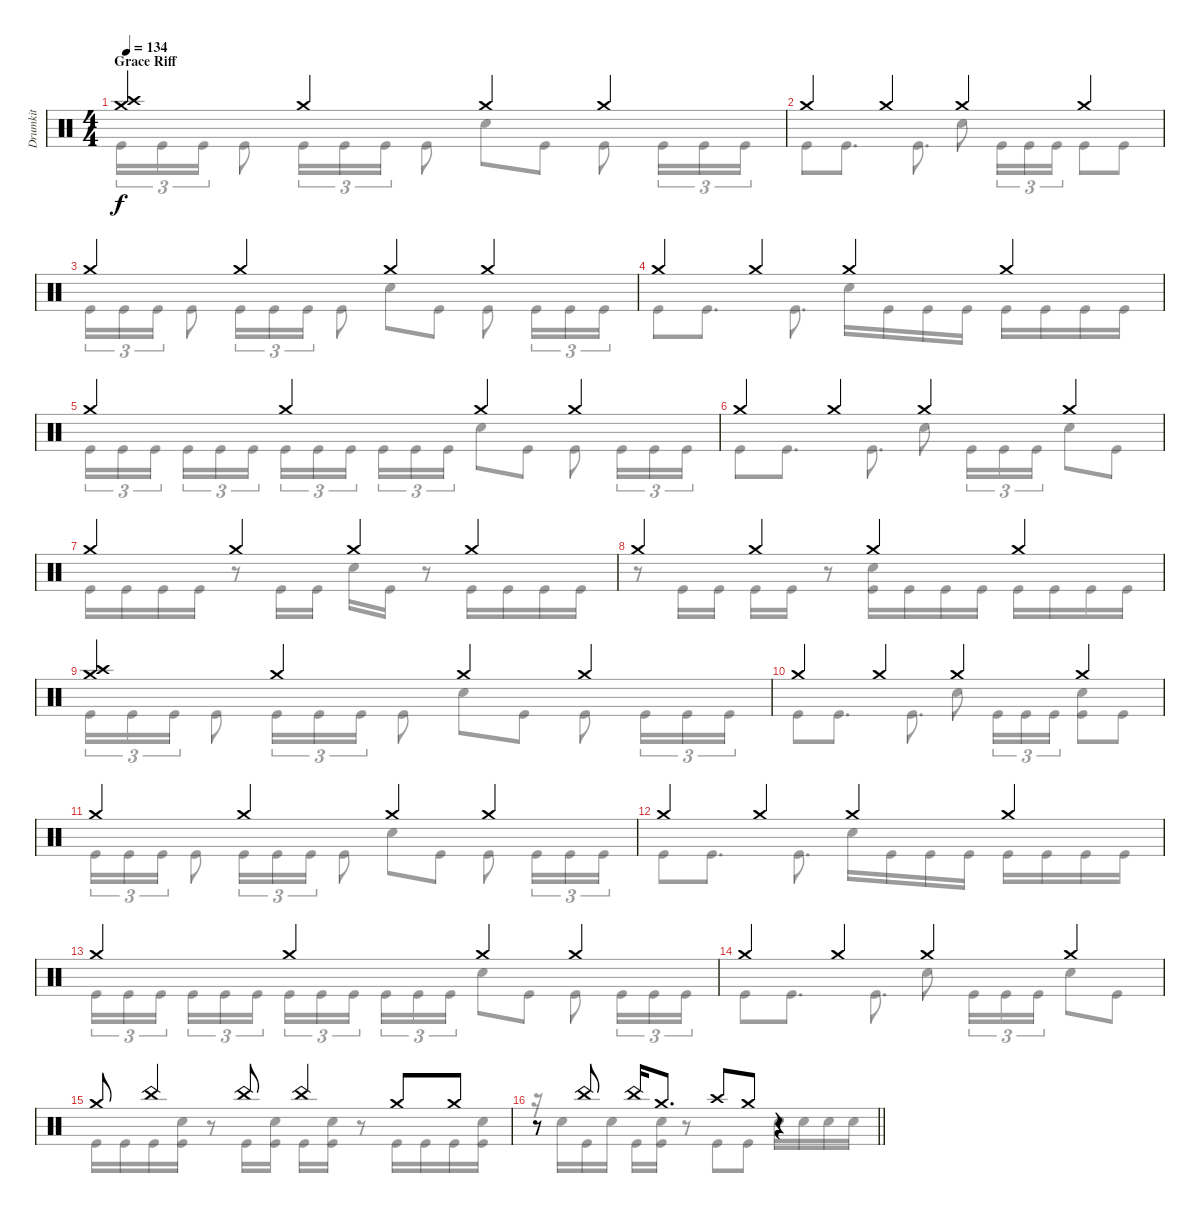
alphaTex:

\track ("Drumkit" "Drumkit") {instrument percussion}
\staff {score}
\articulation defaults
\voice
\ts (4 4)
\section ("" "Grace Riff")
\tempo 134
\clef neutral
\ks c
("Crash high (hit)" "Crash medium (hit)").4{dy f} "Crash medium (hit)".4 "Crash medium (hit)".4 "Crash medium (hit)".4 |
"Crash medium (hit)".4 "Crash medium (hit)".4 "Crash medium (hit)".4 "Crash medium (hit)".4 |
"Crash medium (hit)".4 "Crash medium (hit)".4 "Crash medium (hit)".4 "Crash medium (hit)".4 |
"Crash medium (hit)".4 "Crash medium (hit)".4 "Crash medium (hit)".4 "Crash medium (hit)".4 |
"Crash medium (hit)".4 "Crash medium (hit)".4 "Crash medium (hit)".4 "Crash medium (hit)".4 |
"Crash medium (hit)".4 "Crash medium (hit)".4 "Crash medium (hit)".4 "Crash medium (hit)".4 |
"Crash medium (hit)".4 "Crash medium (hit)".4 "Crash medium (hit)".4 "Crash medium (hit)".4 |
"Crash medium (hit)".4 "Crash medium (hit)".4 "Crash medium (hit)".4 "Crash medium (hit)".4 |
("Crash high (hit)" "Crash medium (hit)").4 "Crash medium (hit)".4 "Crash medium (hit)".4 "Crash medium (hit)".4 |
"Crash medium (hit)".4 "Crash medium (hit)".4 "Crash medium (hit)".4 "Crash medium (hit)".4 |
"Crash medium (hit)".4 "Crash medium (hit)".4 "Crash medium (hit)".4 "Crash medium (hit)".4 |
"Crash medium (hit)".4 "Crash medium (hit)".4 "Crash medium (hit)".4 "Crash medium (hit)".4 |
"Crash medium (hit)".4 "Crash medium (hit)".4 "Crash medium (hit)".4 "Crash medium (hit)".4 |
"Crash medium (hit)".4 "Crash medium (hit)".4 "Crash medium (hit)".4 "Crash medium (hit)".4 |
"Crash medium (hit)".8 "China (hit)".4 "China (hit)".8 "China (hit)".4 "Crash medium (hit)".8 "Crash medium (hit)".8 |
\barLineRight lightlight
r.8 "China (hit)".8 "China (hit)".16 "Crash medium (hit)".8{d} "Crash high (hit)".8 "Crash medium (hit)".8 r.4
\voice
\clef neutral
\ottava regular
\simile none
\ks c "Kick (hit)".16{tu (3 2) dy f} "Kick (hit)".16{tu (3 2)} "Kick (hit)".16{tu (3 2)} "Kick (hit)".8 "Kick (hit)".16{tu (3 2)} "Kick (hit)".16{tu (3 2)} "Kick (hit)".16{tu (3 2)} "Kick (hit)".8 "Snare (hit) 2".8 "Kick (hit)".8 "Kick (hit)".8 "Kick (hit)".16{tu (3 2)} "Kick (hit)".16{tu (3 2)} "Kick (hit)".16{tu (3 2)}
|
"Kick (hit)".8 "Kick (hit)".8{d} "Kick (hit)".8{d} "Snare (hit) 2".8 "Kick (hit)".16{tu (3 2)} "Kick (hit)".16{tu (3 2)} "Kick (hit)".16{tu (3 2)} "Kick (hit)".8 "Kick (hit)".8 |
"Kick (hit)".16{tu (3 2)} "Kick (hit)".16{tu (3 2)} "Kick (hit)".16{tu (3 2)} "Kick (hit)".8 "Kick (hit)".16{tu (3 2)} "Kick (hit)".16{tu (3 2)} "Kick (hit)".16{tu (3 2)} "Kick (hit)".8 "Snare (hit) 2".8 "Kick (hit)".8 "Kick (hit)".8 "Kick (hit)".16{tu (3 2)} "Kick (hit)".16{tu (3 2)} "Kick (hit)".16{tu (3 2)} |
"Kick (hit)".8 "Kick (hit)".8{d} "Kick (hit)".8{d} "Snare (hit) 2".16 "Kick (hit)".16 "Kick (hit)".16 "Kick (hit)".16 "Kick (hit)".16 "Kick (hit)".16 "Kick (hit)".16 "Kick (hit)".16 |
"Kick (hit)".16{tu (3 2)} "Kick (hit)".16{tu (3 2)} "Kick (hit)".16{tu (3 2) beam splitsecondary} "Kick (hit)".16{tu (3 2)} "Kick (hit)".16{tu (3 2)} "Kick (hit)".16{tu (3 2)} "Kick (hit)".16{tu (3 2)} "Kick (hit)".16{tu (3 2)} "Kick (hit)".16{tu (3 2) beam splitsecondary} "Kick (hit)".16{tu (3 2)} "Kick (hit)".16{tu (3 2)} "Kick (hit)".16{tu (3 2)} "Snare (hit) 2".8 "Kick (hit)".8 "Kick (hit)".8 "Kick (hit)".16{tu (3 2)} "Kick (hit)".16{tu (3 2)} "Kick (hit)".16{tu (3 2)} |
"Kick (hit)".8 "Kick (hit)".8{d} "Kick (hit)".8{d} "Snare (hit) 2".8 "Kick (hit)".16{tu (3 2)} "Kick (hit)".16{tu (3 2)} "Kick (hit)".16{tu (3 2)} "Snare (hit) 2".8 "Kick (hit)".8 |
"Kick (hit)".16 "Kick (hit)".16 "Kick (hit)".16 "Kick (hit)".16 r.8 "Kick (hit)".16 "Kick (hit)".16 "Snare (hit) 2".16 "Kick (hit)".16 r.8 "Kick (hit)".16 "Kick (hit)".16 "Kick (hit)".16 "Kick (hit)".16 |
r.8 "Kick (hit)".16 "Kick (hit)".16 "Kick (hit)".16 "Kick (hit)".16 r.8 ("Snare (hit) 2" "Kick (hit)").16 "Kick (hit)".16 "Kick (hit)".16 "Kick (hit)".16 "Kick (hit)".16 "Kick (hit)".16 "Kick (hit)".16 "Kick (hit)".16 |
"Kick (hit)".16{tu (3 2)} "Kick (hit)".16{tu (3 2)} "Kick (hit)".16{tu (3 2)} "Kick (hit)".8 "Kick (hit)".16{tu (3 2)} "Kick (hit)".16{tu (3 2)} "Kick (hit)".16{tu (3 2)} "Kick (hit)".8 "Snare (hit) 2".8 "Kick (hit)".8 "Kick (hit)".8 "Kick (hit)".16{tu (3 2)} "Kick (hit)".16{tu (3 2)} "Kick (hit)".16{tu (3 2)} |
"Kick (hit)".8 "Kick (hit)".8{d} "Kick (hit)".8{d} "Snare (hit) 2".8 "Kick (hit)".16{tu (3 2)} "Kick (hit)".16{tu (3 2)} "Kick (hit)".16{tu (3 2)} ("Snare (hit) 2" "Kick (hit)").8 "Kick (hit)".8 |
"Kick (hit)".16{tu (3 2)} "Kick (hit)".16{tu (3 2)} "Kick (hit)".16{tu (3 2)} "Kick (hit)".8 "Kick (hit)".16{tu (3 2)} "Kick (hit)".16{tu (3 2)} "Kick (hit)".16{tu (3 2)} "Kick (hit)".8 "Snare (hit) 2".8 "Kick (hit)".8 "Kick (hit)".8 "Kick (hit)".16{tu (3 2)} "Kick (hit)".16{tu (3 2)} "Kick (hit)".16{tu (3 2)} |
"Kick (hit)".8 "Kick (hit)".8{d} "Kick (hit)".8{d} "Snare (hit) 2".16 "Kick (hit)".16 "Kick (hit)".16 "Kick (hit)".16 "Kick (hit)".16 "Kick (hit)".16 "Kick (hit)".16 "Kick (hit)".16 |
"Kick (hit)".16{tu (3 2)} "Kick (hit)".16{tu (3 2)} "Kick (hit)".16{tu (3 2) beam splitsecondary} "Kick (hit)".16{tu (3 2)} "Kick (hit)".16{tu (3 2)} "Kick (hit)".16{tu (3 2)} "Kick (hit)".16{tu (3 2)} "Kick (hit)".16{tu (3 2)} "Kick (hit)".16{tu (3 2) beam splitsecondary} "Kick (hit)".16{tu (3 2)} "Kick (hit)".16{tu (3 2)} "Kick (hit)".16{tu (3 2)} "Snare (hit) 2".8 "Kick (hit)".8 "Kick (hit)".8 "Kick (hit)".16{tu (3 2)} "Kick (hit)".16{tu (3 2)} "Kick (hit)".16{tu (3 2)} |
"Kick (hit)".8 "Kick (hit)".8{d} "Kick (hit)".8{d} "Snare (hit) 2".8 "Kick (hit)".16{tu (3 2)} "Kick (hit)".16{tu (3 2)} "Kick (hit)".16{tu (3 2)} "Snare (hit) 2".8 "Kick (hit)".8 |
"Kick (hit)".16 "Kick (hit)".16 "Kick (hit)".16 ("Snare (hit) 2" "Kick (hit)").16 r.8 "Kick (hit)".16 ("Snare (hit) 2" "Kick (hit)").16 "Kick (hit)".16 ("Snare (hit) 2" "Kick (hit)").16 r.8 "Kick (hit)".16 "Kick (hit)".16 "Kick (hit)".16 ("Snare (hit) 2" "Kick (hit)").16 |
\barLineRight lightlight
r.16 "Snare (hit) 2".16 "Kick (hit)".16 "Snare (hit) 2".16 "Kick (hit)".16 ("Snare (hit) 2" "Kick (hit)").16 r.8 "Kick (hit)".8 "Kick (hit)".8 "Snare (hit) 2".16 "Snare (hit) 2".16 "Snare (hit) 2".16 "Snare (hit) 2".16
